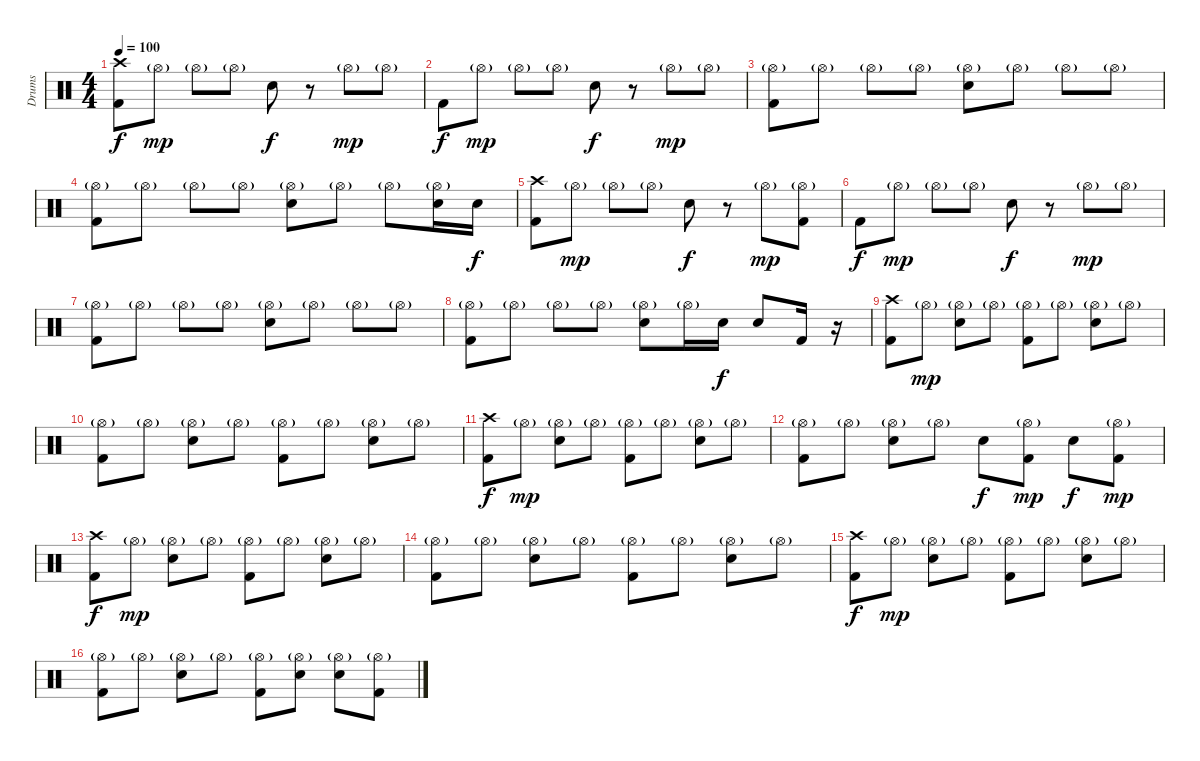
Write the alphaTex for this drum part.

\track ("Drums" "Drums") {instrument percussion}
\staff {score}
\articulation defaults
\ts (4 4)
\tempo 100
\clef neutral
\ks c
("Crash high (hit)" "Kick (hit) 2").8{dy f} "Hi-Hat (open)"{g}.8{dy mp} "Hi-Hat (open)"{g}.8 "Hi-Hat (open)"{g}.8 "Snare (hit) 2".8{dy f} r.8 "Hi-Hat (open)"{g}.8{dy mp} "Hi-Hat (open)"{g}.8 |
"Kick (hit) 2".8{dy f} "Hi-Hat (open)"{g}.8{dy mp} "Hi-Hat (open)"{g}.8 "Hi-Hat (open)"{g}.8 "Snare (hit) 2".8{dy f} r.8 "Hi-Hat (open)"{g}.8{dy mp} "Hi-Hat (open)"{g}.8 |
("Hi-Hat (open)"{g} "Kick (hit) 2").8 "Hi-Hat (open)"{g}.8 "Hi-Hat (open)"{g}.8 "Hi-Hat (open)"{g}.8 ("Snare (hit) 2" "Hi-Hat (open)"{g}).8 "Hi-Hat (open)"{g}.8 "Hi-Hat (open)"{g}.8 "Hi-Hat (open)"{g}.8 |
("Hi-Hat (open)"{g} "Kick (hit) 2").8 "Hi-Hat (open)"{g}.8 "Hi-Hat (open)"{g}.8 "Hi-Hat (open)"{g}.8 ("Snare (hit) 2" "Hi-Hat (open)"{g}).8 "Hi-Hat (open)"{g}.8 "Hi-Hat (open)"{g}.8 ("Snare (hit) 2" "Hi-Hat (open)"{g}).16 "Snare (hit) 2".16{dy f} |
("Crash high (hit)" "Kick (hit) 2").8 "Hi-Hat (open)"{g}.8{dy mp} "Hi-Hat (open)"{g}.8 "Hi-Hat (open)"{g}.8 "Snare (hit) 2".8{dy f} r.8 "Hi-Hat (open)"{g}.8{dy mp} ("Hi-Hat (open)"{g} "Kick (hit) 2").8 |
"Kick (hit) 2".8{dy f} "Hi-Hat (open)"{g}.8{dy mp} "Hi-Hat (open)"{g}.8 "Hi-Hat (open)"{g}.8 "Snare (hit) 2".8{dy f} r.8 "Hi-Hat (open)"{g}.8{dy mp} "Hi-Hat (open)"{g}.8 |
("Hi-Hat (open)"{g} "Kick (hit) 2").8 "Hi-Hat (open)"{g}.8 "Hi-Hat (open)"{g}.8 "Hi-Hat (open)"{g}.8 ("Snare (hit) 2" "Hi-Hat (open)"{g}).8 "Hi-Hat (open)"{g}.8 "Hi-Hat (open)"{g}.8 "Hi-Hat (open)"{g}.8 |
("Hi-Hat (open)"{g} "Kick (hit) 2").8 "Hi-Hat (open)"{g}.8 "Hi-Hat (open)"{g}.8 "Hi-Hat (open)"{g}.8 ("Snare (hit) 2" "Hi-Hat (open)"{g}).8 "Hi-Hat (open)"{g}.16 "Snare (hit) 2".16{dy f} "Snare (hit) 2".8 "Kick (hit) 2".16 r.16 |
("Crash high (hit)" "Kick (hit) 2").8 "Hi-Hat (open)"{g}.8{dy mp} ("Snare (hit) 2" "Hi-Hat (open)"{g}).8 "Hi-Hat (open)"{g}.8 ("Hi-Hat (open)"{g} "Kick (hit) 2").8 "Hi-Hat (open)"{g}.8 ("Snare (hit) 2" "Hi-Hat (open)"{g}).8 "Hi-Hat (open)"{g}.8 |
("Hi-Hat (open)"{g} "Kick (hit) 2").8 "Hi-Hat (open)"{g}.8 ("Snare (hit) 2" "Hi-Hat (open)"{g}).8 "Hi-Hat (open)"{g}.8 ("Hi-Hat (open)"{g} "Kick (hit) 2").8 "Hi-Hat (open)"{g}.8 ("Snare (hit) 2" "Hi-Hat (open)"{g}).8 "Hi-Hat (open)"{g}.8 |
("Crash high (hit)" "Kick (hit) 2").8{dy f} "Hi-Hat (open)"{g}.8{dy mp} ("Snare (hit) 2" "Hi-Hat (open)"{g}).8 "Hi-Hat (open)"{g}.8 ("Hi-Hat (open)"{g} "Kick (hit) 2").8 "Hi-Hat (open)"{g}.8 ("Snare (hit) 2" "Hi-Hat (open)"{g}).8 "Hi-Hat (open)"{g}.8 |
("Hi-Hat (open)"{g} "Kick (hit) 2").8 "Hi-Hat (open)"{g}.8 ("Snare (hit) 2" "Hi-Hat (open)"{g}).8 "Hi-Hat (open)"{g}.8 "Snare (hit) 2".8{dy f} ("Hi-Hat (open)"{g} "Kick (hit) 2").8{dy mp} "Snare (hit) 2".8{dy f} ("Hi-Hat (open)"{g} "Kick (hit) 2").8{dy mp} |
("Crash high (hit)" "Kick (hit) 2").8{dy f} "Hi-Hat (open)"{g}.8{dy mp} ("Snare (hit) 2" "Hi-Hat (open)"{g}).8 "Hi-Hat (open)"{g}.8 ("Hi-Hat (open)"{g} "Kick (hit) 2").8 "Hi-Hat (open)"{g}.8 ("Snare (hit) 2" "Hi-Hat (open)"{g}).8 "Hi-Hat (open)"{g}.8 |
("Hi-Hat (open)"{g} "Kick (hit) 2").8 "Hi-Hat (open)"{g}.8 ("Snare (hit) 2" "Hi-Hat (open)"{g}).8 "Hi-Hat (open)"{g}.8 ("Hi-Hat (open)"{g} "Kick (hit) 2").8 "Hi-Hat (open)"{g}.8 ("Snare (hit) 2" "Hi-Hat (open)"{g}).8 "Hi-Hat (open)"{g}.8 |
("Crash high (hit)" "Kick (hit) 2").8{dy f} "Hi-Hat (open)"{g}.8{dy mp} ("Snare (hit) 2" "Hi-Hat (open)"{g}).8 "Hi-Hat (open)"{g}.8 ("Hi-Hat (open)"{g} "Kick (hit) 2").8 "Hi-Hat (open)"{g}.8 ("Snare (hit) 2" "Hi-Hat (open)"{g}).8 "Hi-Hat (open)"{g}.8 |
("Hi-Hat (open)"{g} "Kick (hit) 2").8 "Hi-Hat (open)"{g}.8 ("Snare (hit) 2" "Hi-Hat (open)"{g}).8 "Hi-Hat (open)"{g}.8 ("Hi-Hat (open)"{g} "Kick (hit) 2").8 ("Snare (hit) 2" "Hi-Hat (open)"{g}).8 ("Snare (hit) 2" "Hi-Hat (open)"{g}).8 ("Hi-Hat (open)"{g} "Kick (hit) 2").8
